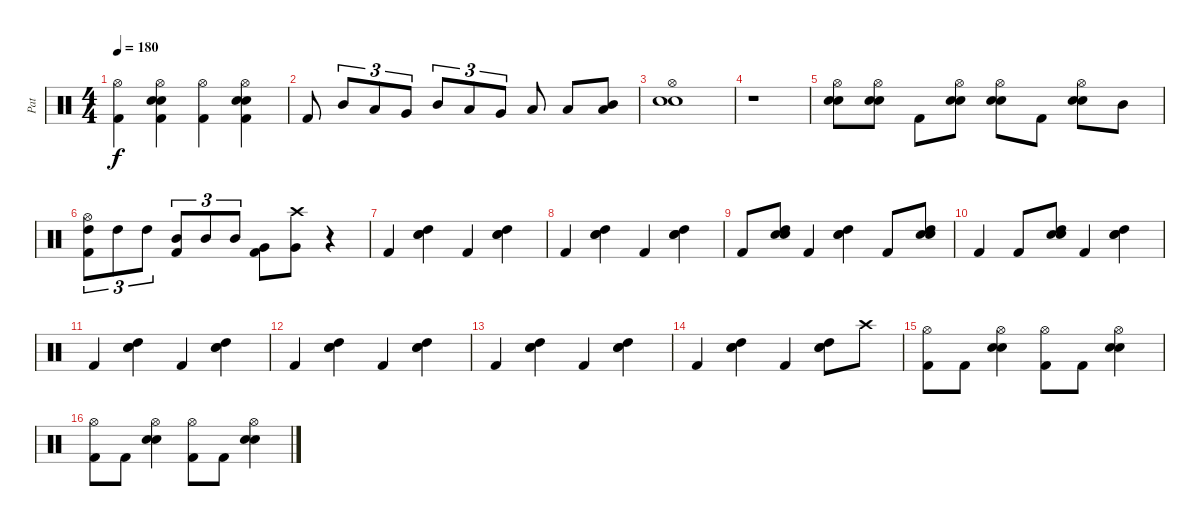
\track ("Pat" "Pat") {instrument percussion}
\staff {score}
\articulation defaults
\ts (4 4)
\tempo 180
\clef neutral
\ks c
("Hi-Hat (open)" "Kick (hit) 2").4{dy f} ("Hi-Hat (open)" "Snare (hit) 2" "Electric Snare (hit)" "Kick (hit) 2").4 ("Hi-Hat (open)" "Kick (hit) 2").4 ("Hi-Hat (open)" "Snare (hit) 2" "Electric Snare (hit)" "Kick (hit) 2").4 |
"Kick (hit) 2".8 "Mid Tom (hit)".8{tu (3 2)} "Low Tom (hit)".8{tu (3 2)} "Very Low Tom (hit)".8{tu (3 2)} "Mid Tom (hit)".8{tu (3 2)} "Low Tom (hit)".8{tu (3 2)} "Very Low Tom (hit)".8{tu (3 2)} "Low Tom (hit)".8 "Low Tom (hit)".8 ("Mid Tom (hit)" "Low Tom (hit)").8 |
("Snare (hit) 2" "Electric Snare (hit)" "Hi-Hat (open)").1 |
r.1 |
("Snare (hit) 2" "Electric Snare (hit)" "Hi-Hat (open)").8 ("Snare (hit) 2" "Electric Snare (hit)" "Hi-Hat (open)").8 "Kick (hit) 2".8 ("Snare (hit) 2" "Electric Snare (hit)" "Hi-Hat (open)").8 ("Snare (hit) 2" "Electric Snare (hit)" "Hi-Hat (open)").8 "Kick (hit) 2".8 ("Snare (hit) 2" "Electric Snare (hit)" "Hi-Hat (open)").8 "Mid Tom (hit)".8 |
("High Tom (hit)" "Hi-Hat (open)" "Kick (hit) 2").8{tu (3 2)} "High Tom (hit)".8{tu (3 2)} "High Tom (hit)".8{tu (3 2)} ("Mid Tom (hit)" "Kick (hit) 2").8{tu (3 2)} "Mid Tom (hit)".8{tu (3 2)} "Mid Tom (hit)".8{tu (3 2)} ("Very Low Tom (hit)" "Kick (hit) 2").8 ("Crash high (hit)" "Very Low Tom (hit)").8 r.4 |
"Kick (hit) 2".4 ("High Tom (hit)" "Snare (hit) 2" "Electric Snare (hit)").4 "Kick (hit) 2".4 ("High Tom (hit)" "Snare (hit) 2" "Electric Snare (hit)").4 |
"Kick (hit) 2".4 ("High Tom (hit)" "Snare (hit) 2" "Electric Snare (hit)").4 "Kick (hit) 2".4 ("High Tom (hit)" "Snare (hit) 2" "Electric Snare (hit)").4 |
"Kick (hit) 2".8 ("High Tom (hit)" "Snare (hit) 2" "Electric Snare (hit)").8 "Kick (hit) 2".4 ("High Tom (hit)" "Snare (hit) 2" "Electric Snare (hit)").4 "Kick (hit) 2".8 ("High Tom (hit)" "Snare (hit) 2" "Electric Snare (hit)").8 |
"Kick (hit) 2".4 "Kick (hit) 2".8 ("High Tom (hit)" "Snare (hit) 2" "Electric Snare (hit)").8 "Kick (hit) 2".4 ("High Tom (hit)" "Snare (hit) 2" "Electric Snare (hit)").4 |
"Kick (hit) 2".4 ("High Tom (hit)" "Snare (hit) 2" "Electric Snare (hit)").4 "Kick (hit) 2".4 ("High Tom (hit)" "Snare (hit) 2" "Electric Snare (hit)").4 |
"Kick (hit) 2".4 ("High Tom (hit)" "Snare (hit) 2" "Electric Snare (hit)").4 "Kick (hit) 2".4 ("High Tom (hit)" "Snare (hit) 2" "Electric Snare (hit)").4 |
"Kick (hit) 2".4 ("High Tom (hit)" "Snare (hit) 2" "Electric Snare (hit)").4 "Kick (hit) 2".4 ("High Tom (hit)" "Snare (hit) 2" "Electric Snare (hit)").4 |
"Kick (hit) 2".4 ("High Tom (hit)" "Snare (hit) 2" "Electric Snare (hit)").4 "Kick (hit) 2".4 ("High Tom (hit)" "Snare (hit) 2" "Electric Snare (hit)").8 "Crash high (hit)".8 |
("Hi-Hat (open)" "Kick (hit) 2").8 "Kick (hit) 2".8 ("Hi-Hat (open)" "Snare (hit) 2" "Electric Snare (hit)").4 ("Hi-Hat (open)" "Kick (hit) 2").8 "Kick (hit) 2".8 ("Hi-Hat (open)" "Snare (hit) 2" "Electric Snare (hit)").4 |
("Hi-Hat (open)" "Kick (hit) 2").8 "Kick (hit) 2".8 ("Hi-Hat (open)" "Snare (hit) 2" "Electric Snare (hit)").4 ("Hi-Hat (open)" "Kick (hit) 2").8 "Kick (hit) 2".8 ("Hi-Hat (open)" "Snare (hit) 2" "Electric Snare (hit)").4
